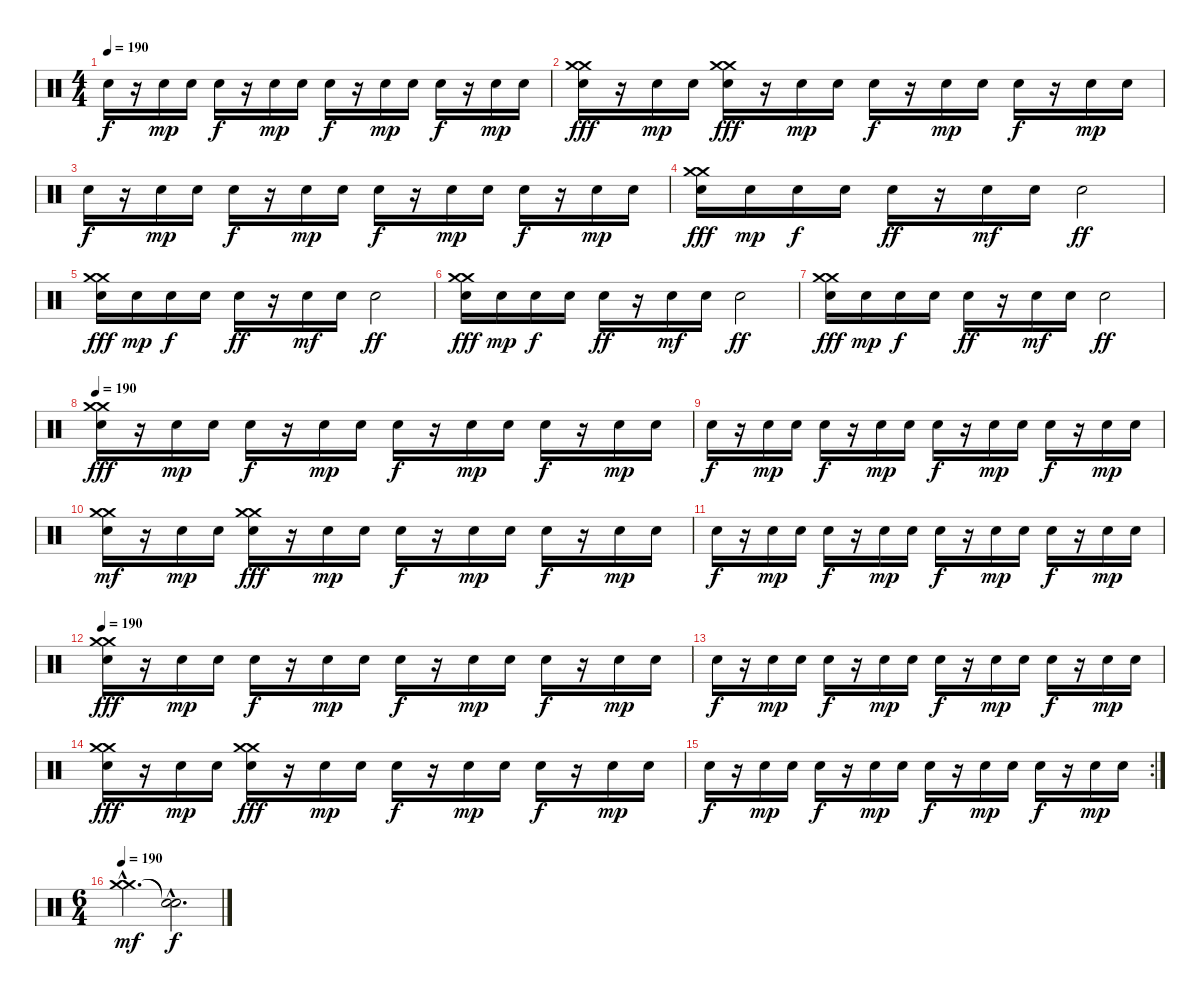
\track "" {instrument percussion}
\staff {score}
\articulation defaults
\ts (4 4)
\tempo 190
\clef neutral
\ks c "Snare (hit) 2".16{dy f}
r.16 "Snare (hit) 2".16{dy mp} "Snare (hit) 2".16 "Snare (hit) 2".16{dy f} r.16 "Snare (hit) 2".16{dy mp} "Snare (hit) 2".16 "Snare (hit) 2".16{dy f} r.16 "Snare (hit) 2".16{dy mp} "Snare (hit) 2".16 "Snare (hit) 2".16{dy f} r.16 "Snare (hit) 2".16{dy mp} "Snare (hit) 2".16 |
("Snare (hit) 2" "Crash medium (hit)" "Crash medium (hit)").16{dy fff} r.16 "Snare (hit) 2".16{dy mp} "Snare (hit) 2".16 ("Snare (hit) 2" "Crash medium (hit)" "Crash medium (hit)").16{dy fff} r.16 "Snare (hit) 2".16{dy mp} "Snare (hit) 2".16 "Snare (hit) 2".16{dy f} r.16 "Snare (hit) 2".16{dy mp} "Snare (hit) 2".16 "Snare (hit) 2".16{dy f} r.16 "Snare (hit) 2".16{dy mp} "Snare (hit) 2".16 |
"Snare (hit) 2".16{dy f} r.16 "Snare (hit) 2".16{dy mp} "Snare (hit) 2".16 "Snare (hit) 2".16{dy f} r.16 "Snare (hit) 2".16{dy mp} "Snare (hit) 2".16 "Snare (hit) 2".16{dy f} r.16 "Snare (hit) 2".16{dy mp} "Snare (hit) 2".16 "Snare (hit) 2".16{dy f} r.16 "Snare (hit) 2".16{dy mp} "Snare (hit) 2".16 |
("Snare (hit) 2" "Crash medium (hit)" "Crash medium (hit)").16{dy fff} "Snare (hit) 2".16{dy mp} "Snare (hit) 2".16{dy f} "Snare (hit) 2".16 "Snare (hit) 2".16{dy ff} r.16 "Snare (hit) 2".16{dy mf} "Snare (hit) 2".16 "Snare (hit) 2".2{dy ff} |
("Snare (hit) 2" "Crash medium (hit)" "Crash medium (hit)").16{dy fff} "Snare (hit) 2".16{dy mp} "Snare (hit) 2".16{dy f} "Snare (hit) 2".16 "Snare (hit) 2".16{dy ff} r.16 "Snare (hit) 2".16{dy mf} "Snare (hit) 2".16 "Snare (hit) 2".2{dy ff} |
("Snare (hit) 2" "Crash medium (hit)" "Crash medium (hit)").16{dy fff} "Snare (hit) 2".16{dy mp} "Snare (hit) 2".16{dy f} "Snare (hit) 2".16 "Snare (hit) 2".16{dy ff} r.16 "Snare (hit) 2".16{dy mf} "Snare (hit) 2".16 "Snare (hit) 2".2{dy ff} |
("Snare (hit) 2" "Crash medium (hit)" "Crash medium (hit)").16{dy fff} "Snare (hit) 2".16{dy mp} "Snare (hit) 2".16{dy f} "Snare (hit) 2".16 "Snare (hit) 2".16{dy ff} r.16 "Snare (hit) 2".16{dy mf} "Snare (hit) 2".16 "Snare (hit) 2".2{dy ff} |
\tempo 190
("Snare (hit) 2" "Crash medium (hit)" "Crash medium (hit)").16{dy fff} r.16 "Snare (hit) 2".16{dy mp} "Snare (hit) 2".16 "Snare (hit) 2".16{dy f} r.16 "Snare (hit) 2".16{dy mp} "Snare (hit) 2".16 "Snare (hit) 2".16{dy f} r.16 "Snare (hit) 2".16{dy mp} "Snare (hit) 2".16 "Snare (hit) 2".16{dy f} r.16 "Snare (hit) 2".16{dy mp} "Snare (hit) 2".16 |
"Snare (hit) 2".16{dy f} r.16 "Snare (hit) 2".16{dy mp} "Snare (hit) 2".16 "Snare (hit) 2".16{dy f} r.16 "Snare (hit) 2".16{dy mp} "Snare (hit) 2".16 "Snare (hit) 2".16{dy f} r.16 "Snare (hit) 2".16{dy mp} "Snare (hit) 2".16 "Snare (hit) 2".16{dy f} r.16 "Snare (hit) 2".16{dy mp} "Snare (hit) 2".16 |
("Snare (hit) 2" "Crash medium (hit)" "Crash medium (hit)").16{dy mf} r.16 "Snare (hit) 2".16{dy mp} "Snare (hit) 2".16 ("Snare (hit) 2" "Crash medium (hit)" "Crash medium (hit)").16{dy fff} r.16 "Snare (hit) 2".16{dy mp} "Snare (hit) 2".16 "Snare (hit) 2".16{dy f} r.16 "Snare (hit) 2".16{dy mp} "Snare (hit) 2".16 "Snare (hit) 2".16{dy f} r.16 "Snare (hit) 2".16{dy mp} "Snare (hit) 2".16 |
"Snare (hit) 2".16{dy f} r.16 "Snare (hit) 2".16{dy mp} "Snare (hit) 2".16 "Snare (hit) 2".16{dy f} r.16 "Snare (hit) 2".16{dy mp} "Snare (hit) 2".16 "Snare (hit) 2".16{dy f} r.16 "Snare (hit) 2".16{dy mp} "Snare (hit) 2".16 "Snare (hit) 2".16{dy f} r.16 "Snare (hit) 2".16{dy mp} "Snare (hit) 2".16 |
\tempo 190
("Snare (hit) 2" "Crash medium (hit)" "Crash medium (hit)").16{dy fff} r.16 "Snare (hit) 2".16{dy mp} "Snare (hit) 2".16 "Snare (hit) 2".16{dy f} r.16 "Snare (hit) 2".16{dy mp} "Snare (hit) 2".16 "Snare (hit) 2".16{dy f} r.16 "Snare (hit) 2".16{dy mp} "Snare (hit) 2".16 "Snare (hit) 2".16{dy f} r.16 "Snare (hit) 2".16{dy mp} "Snare (hit) 2".16 |
"Snare (hit) 2".16{dy f} r.16 "Snare (hit) 2".16{dy mp} "Snare (hit) 2".16 "Snare (hit) 2".16{dy f} r.16 "Snare (hit) 2".16{dy mp} "Snare (hit) 2".16 "Snare (hit) 2".16{dy f} r.16 "Snare (hit) 2".16{dy mp} "Snare (hit) 2".16 "Snare (hit) 2".16{dy f} r.16 "Snare (hit) 2".16{dy mp} "Snare (hit) 2".16 |
("Snare (hit) 2" "Crash medium (hit)" "Crash medium (hit)").16{dy fff} r.16 "Snare (hit) 2".16{dy mp} "Snare (hit) 2".16 ("Snare (hit) 2" "Crash medium (hit)" "Crash medium (hit)").16{dy fff} r.16 "Snare (hit) 2".16{dy mp} "Snare (hit) 2".16 "Snare (hit) 2".16{dy f} r.16 "Snare (hit) 2".16{dy mp} "Snare (hit) 2".16 "Snare (hit) 2".16{dy f} r.16 "Snare (hit) 2".16{dy mp} "Snare (hit) 2".16 |
\rc 2 "Snare (hit) 2".16{dy f}
r.16 "Snare (hit) 2".16{dy mp} "Snare (hit) 2".16 "Snare (hit) 2".16{dy f} r.16 "Snare (hit) 2".16{dy mp} "Snare (hit) 2".16 "Snare (hit) 2".16{dy f} r.16 "Snare (hit) 2".16{dy mp} "Snare (hit) 2".16 "Snare (hit) 2".16{dy f} r.16 "Snare (hit) 2".16{dy mp} "Snare (hit) 2".16 |
\ts (6 4)
\tempo 190
("Crash medium (hit)"{hac} "Crash medium (hit)"{hac}).2{d dy mf} ("Snare (hit)"{hac t} "Snare (hit)"{hac t}).2{d dy f}
